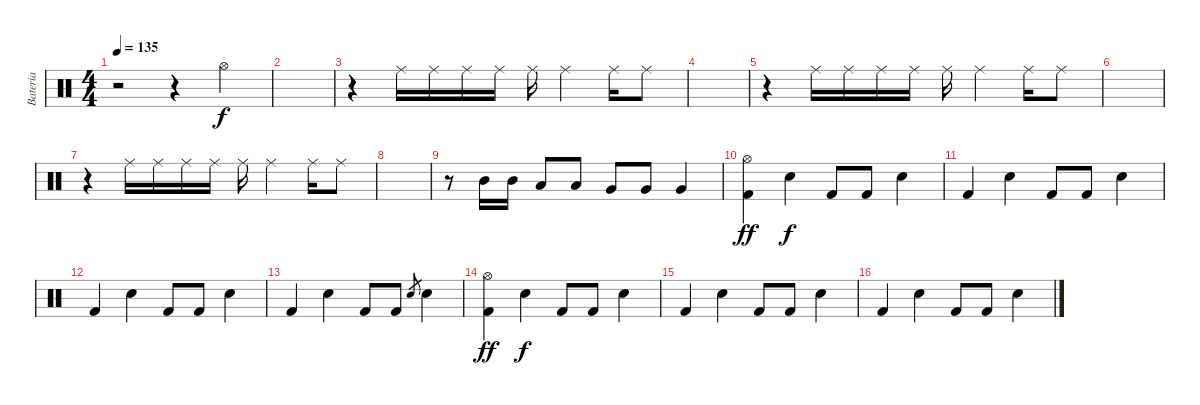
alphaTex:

\track ("Bateria" "Bateria") {instrument percussion}
\staff {score}
\articulation defaults
\ts (4 4)
\tempo 135
\clef neutral
\ks c
r.2{dy f} r.4 "Hi-Hat (open)".4 |
|
r.4 "Ride (middle)".16 "Ride (middle)".16 "Ride (middle)".16 "Ride (middle)".16 "Ride (middle)".16 "Ride (middle)".4 "Ride (middle)".16 "Ride (middle)".8 |
|
r.4 "Ride (middle)".16 "Ride (middle)".16 "Ride (middle)".16 "Ride (middle)".16 "Ride (middle)".16 "Ride (middle)".4 "Ride (middle)".16 "Ride (middle)".8 |
|
r.4 "Ride (middle)".16 "Ride (middle)".16 "Ride (middle)".16 "Ride (middle)".16 "Ride (middle)".16 "Ride (middle)".4 "Ride (middle)".16 "Ride (middle)".8 |
|
r.8 "Mid Tom (hit)".16 "Mid Tom (hit)".16 "Low Tom (hit)".8 "Low Tom (hit)".8 "Very Low Tom (hit)".8 "Very Low Tom (hit)".8 "Very Low Tom (hit)".4 |
("Hi-Hat (open)" "Kick (hit) 2").4{dy ff} "Electric Snare (hit)".4{dy f} "Kick (hit) 2".8 "Kick (hit) 2".8 "Electric Snare (hit)".4 |
"Kick (hit) 2".4 "Electric Snare (hit)".4 "Kick (hit) 2".8 "Kick (hit) 2".8 "Electric Snare (hit)".4 |
"Kick (hit) 2".4 "Electric Snare (hit)".4 "Kick (hit) 2".8 "Kick (hit) 2".8 "Electric Snare (hit)".4 |
"Kick (hit) 2".4 "Electric Snare (hit)".4 "Kick (hit) 2".8 "Kick (hit) 2".8 "Electric Snare (hit)".8{gr} "Electric Snare (hit)".4 |
("Hi-Hat (open)" "Kick (hit) 2").4{dy ff} "Electric Snare (hit)".4{dy f} "Kick (hit) 2".8 "Kick (hit) 2".8 "Electric Snare (hit)".4 |
"Kick (hit) 2".4 "Electric Snare (hit)".4 "Kick (hit) 2".8 "Kick (hit) 2".8 "Electric Snare (hit)".4 |
"Kick (hit) 2".4 "Electric Snare (hit)".4 "Kick (hit) 2".8 "Kick (hit) 2".8 "Electric Snare (hit)".4
